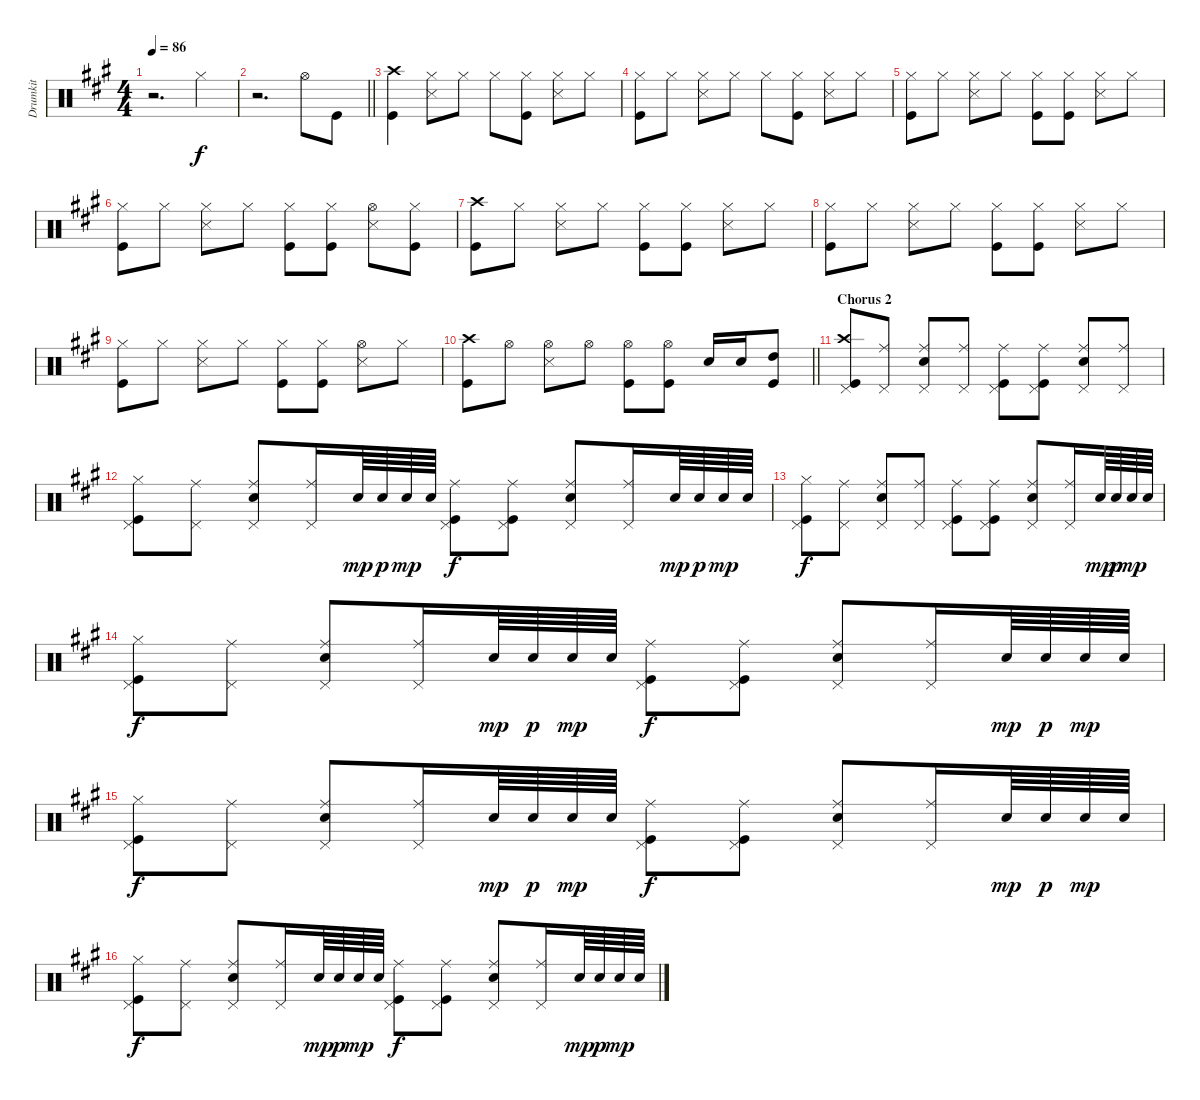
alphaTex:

\track ("Drumkit" "Drumkit") {instrument percussion}
\staff {score}
\articulation defaults
\ts (4 4)
\tempo 86
\clef neutral
\ks a
r.2{d dy f} "Hi-Hat (closed)".4 |
\barLineRight lightlight
r.2{d} "Hi-Hat (open)".8 "Kick (hit)".8 |
("Kick (hit)" "Crash high (hit)").4 ("Hi-Hat (closed)" "Snare (side stick) 3").8 "Hi-Hat (closed)".8 "Hi-Hat (closed)".8 ("Kick (hit)" "Hi-Hat (closed)").8 ("Snare (side stick) 3" "Hi-Hat (closed)").8 "Hi-Hat (closed)".8 |
("Kick (hit)" "Hi-Hat (closed)").8 "Hi-Hat (closed)".8 ("Hi-Hat (closed)" "Snare (side stick) 3").8 "Hi-Hat (closed)".8 "Hi-Hat (closed)".8 ("Kick (hit)" "Hi-Hat (closed)").8 ("Snare (side stick) 3" "Hi-Hat (closed)").8 "Hi-Hat (closed)".8 |
("Kick (hit)" "Hi-Hat (closed)").8 "Hi-Hat (closed)".8 ("Hi-Hat (closed)" "Snare (side stick) 3").8 "Hi-Hat (closed)".8 ("Hi-Hat (closed)" "Kick (hit)").8 ("Kick (hit)" "Hi-Hat (closed)").8 ("Snare (side stick) 3" "Hi-Hat (closed)").8 "Hi-Hat (closed)".8 |
("Kick (hit)" "Hi-Hat (closed)").8 "Hi-Hat (closed)".8 ("Hi-Hat (closed)" "Snare (side stick) 3").8 "Hi-Hat (closed)".8 ("Hi-Hat (closed)" "Kick (hit)").8 ("Kick (hit)" "Hi-Hat (closed)").8 ("Snare (side stick) 3" "Hi-Hat (open)").8 ("Hi-Hat (closed)" "Kick (hit)").8 |
("Kick (hit)" "Crash high (hit)").8 "Hi-Hat (closed)".8 ("Hi-Hat (closed)" "Snare (side stick) 3").8 "Hi-Hat (closed)".8 ("Hi-Hat (closed)" "Kick (hit)").8 ("Kick (hit)" "Hi-Hat (closed)").8 ("Snare (side stick) 3" "Hi-Hat (closed)").8 "Hi-Hat (closed)".8 |
("Kick (hit)" "Hi-Hat (closed)").8 "Hi-Hat (closed)".8 ("Hi-Hat (closed)" "Snare (side stick) 3").8 "Hi-Hat (closed)".8 ("Hi-Hat (closed)" "Kick (hit)").8 ("Kick (hit)" "Hi-Hat (closed)").8 ("Snare (side stick) 3" "Hi-Hat (closed)").8 "Hi-Hat (closed)".8 |
("Kick (hit)" "Hi-Hat (closed)").8 "Hi-Hat (closed)".8 ("Hi-Hat (closed)" "Snare (side stick) 3").8 "Hi-Hat (closed)".8 ("Hi-Hat (closed)" "Kick (hit)").8 ("Kick (hit)" "Hi-Hat (closed)").8 ("Snare (side stick) 3" "Hi-Hat (open)").8 "Hi-Hat (closed)".8 |
\barLineRight lightlight
("Kick (hit)" "Crash high (hit)").8 "Hi-Hat (open)".8 ("Hi-Hat (open)" "Snare (side stick) 3").8 "Hi-Hat (open)".8 ("Hi-Hat (open)" "Kick (hit)").8 ("Hi-Hat (open)" "Kick (hit)").8 "Snare (hit) 2".16 "Snare (hit) 2".16 ("Kick (hit)" "High Tom (hit)").8 |
\section ("" "Chorus 2")
("Kick (hit)" "Crash high (hit)" "Pedal Hi-Hat (hit)").8 ("Ride (middle)" "Pedal Hi-Hat (hit)").8 ("Ride (middle)" "Snare (hit) 2" "Pedal Hi-Hat (hit)").8 ("Pedal Hi-Hat (hit)" "Ride (middle)").8 ("Kick (hit)" "Ride (middle)" "Pedal Hi-Hat (hit)").8 ("Kick (hit)" "Ride (middle)" "Pedal Hi-Hat (hit)").8 ("Ride (middle)" "Snare (hit) 2" "Pedal Hi-Hat (hit)").8 ("Ride (middle)" "Pedal Hi-Hat (hit)").8 |
("Kick (hit)" "Hi-Hat (closed)" "Pedal Hi-Hat (hit)").8 ("Ride (middle)" "Pedal Hi-Hat (hit)").8 ("Ride (middle)" "Snare (hit) 2" "Pedal Hi-Hat (hit)").8 ("Pedal Hi-Hat (hit)" "Ride (middle)").16 "Snare (hit) 2".64{dy mp} "Snare (hit) 2".64{dy p} "Snare (hit) 2".64{dy mp} "Snare (hit) 2".64 ("Kick (hit)" "Ride (middle)" "Pedal Hi-Hat (hit)").8{dy f} ("Kick (hit)" "Ride (middle)" "Pedal Hi-Hat (hit)").8 ("Ride (middle)" "Snare (hit) 2" "Pedal Hi-Hat (hit)").8 ("Ride (middle)" "Pedal Hi-Hat (hit)").16 "Snare (hit) 2".64{dy mp} "Snare (hit) 2".64{dy p} "Snare (hit) 2".64{dy mp} "Snare (hit) 2".64 |
("Kick (hit)" "Hi-Hat (closed)" "Pedal Hi-Hat (hit)").8{dy f} ("Ride (middle)" "Pedal Hi-Hat (hit)").8 ("Ride (middle)" "Snare (hit) 2" "Pedal Hi-Hat (hit)").8 ("Pedal Hi-Hat (hit)" "Ride (middle)").8 ("Kick (hit)" "Ride (middle)" "Pedal Hi-Hat (hit)").8 ("Kick (hit)" "Ride (middle)" "Pedal Hi-Hat (hit)").8 ("Ride (middle)" "Snare (hit) 2" "Pedal Hi-Hat (hit)").8 ("Ride (middle)" "Pedal Hi-Hat (hit)").16 "Snare (hit) 2".64{dy mp} "Snare (hit) 2".64{dy p} "Snare (hit) 2".64{dy mp} "Snare (hit) 2".64 |
("Kick (hit)" "Hi-Hat (closed)" "Pedal Hi-Hat (hit)").8{dy f} ("Ride (middle)" "Pedal Hi-Hat (hit)").8 ("Ride (middle)" "Snare (hit) 2" "Pedal Hi-Hat (hit)").8 ("Pedal Hi-Hat (hit)" "Ride (middle)").16 "Snare (hit) 2".64{dy mp} "Snare (hit) 2".64{dy p} "Snare (hit) 2".64{dy mp} "Snare (hit) 2".64 ("Kick (hit)" "Ride (middle)" "Pedal Hi-Hat (hit)").8{dy f} ("Kick (hit)" "Ride (middle)" "Pedal Hi-Hat (hit)").8 ("Ride (middle)" "Snare (hit) 2" "Pedal Hi-Hat (hit)").8 ("Ride (middle)" "Pedal Hi-Hat (hit)").16 "Snare (hit) 2".64{dy mp} "Snare (hit) 2".64{dy p} "Snare (hit) 2".64{dy mp} "Snare (hit) 2".64 |
("Kick (hit)" "Hi-Hat (closed)" "Pedal Hi-Hat (hit)").8{dy f} ("Ride (middle)" "Pedal Hi-Hat (hit)").8 ("Ride (middle)" "Snare (hit) 2" "Pedal Hi-Hat (hit)").8 ("Pedal Hi-Hat (hit)" "Ride (middle)").16 "Snare (hit) 2".64{dy mp} "Snare (hit) 2".64{dy p} "Snare (hit) 2".64{dy mp} "Snare (hit) 2".64 ("Kick (hit)" "Ride (middle)" "Pedal Hi-Hat (hit)").8{dy f} ("Kick (hit)" "Ride (middle)" "Pedal Hi-Hat (hit)").8 ("Ride (middle)" "Snare (hit) 2" "Pedal Hi-Hat (hit)").8 ("Ride (middle)" "Pedal Hi-Hat (hit)").16 "Snare (hit) 2".64{dy mp} "Snare (hit) 2".64{dy p} "Snare (hit) 2".64{dy mp} "Snare (hit) 2".64 |
("Kick (hit)" "Hi-Hat (closed)" "Pedal Hi-Hat (hit)").8{dy f} ("Ride (middle)" "Pedal Hi-Hat (hit)").8 ("Ride (middle)" "Snare (hit) 2" "Pedal Hi-Hat (hit)").8 ("Pedal Hi-Hat (hit)" "Ride (middle)").16 "Snare (hit) 2".64{dy mp} "Snare (hit) 2".64{dy p} "Snare (hit) 2".64{dy mp} "Snare (hit) 2".64 ("Kick (hit)" "Ride (middle)" "Pedal Hi-Hat (hit)").8{dy f} ("Kick (hit)" "Ride (middle)" "Pedal Hi-Hat (hit)").8 ("Ride (middle)" "Snare (hit) 2" "Pedal Hi-Hat (hit)").8 ("Ride (middle)" "Pedal Hi-Hat (hit)").16 "Snare (hit) 2".64{dy mp} "Snare (hit) 2".64{dy p} "Snare (hit) 2".64{dy mp} "Snare (hit) 2".64
